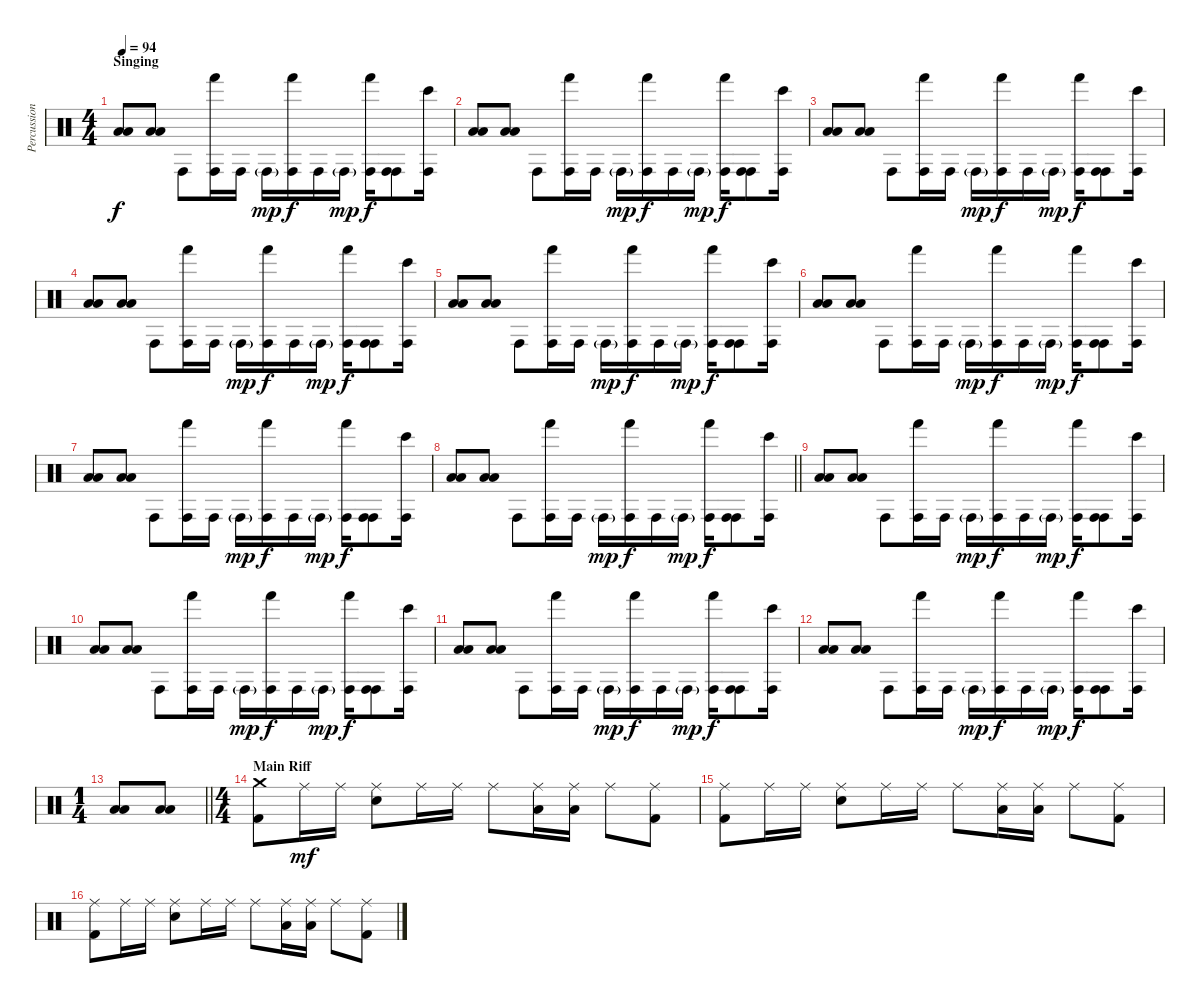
\track ("Percussions" "Percussion") {instrument percussion}
\staff {score}
\articulation defaults
\ts (4 4)
\section ("" "Singing")
\tempo 94
\clef neutral
\ks c
("Low Floor Tom (hit)" "Low Floor Tom (hit)").8{dy f} ("Low Floor Tom (hit)" "Low Floor Tom (hit)").8 "Conga high (hit)".8 ("Hand (hit)" "Conga high (hit)").16 "Conga high (hit)".16 "Conga high (hit)"{g}.16{dy mp} ("Hand (hit)" "Conga high (hit)").16{dy f} "Conga high (hit)".16 "Conga high (hit)"{g}.16{dy mp} ("Hand (hit)" "Conga high (hit)").16{dy f} ("Conga high (hit)" "Conga high (hit)").8 ("Bongo High (hit)" "Conga high (hit)").16 |
("Low Floor Tom (hit)" "Low Floor Tom (hit)").8 ("Low Floor Tom (hit)" "Low Floor Tom (hit)").8 "Conga high (hit)".8 ("Hand (hit)" "Conga high (hit)").16 "Conga high (hit)".16 "Conga high (hit)"{g}.16{dy mp} ("Hand (hit)" "Conga high (hit)").16{dy f} "Conga high (hit)".16 "Conga high (hit)"{g}.16{dy mp} ("Hand (hit)" "Conga high (hit)").16{dy f} ("Conga high (hit)" "Conga high (hit)").8 ("Bongo High (hit)" "Conga high (hit)").16 |
("Low Floor Tom (hit)" "Low Floor Tom (hit)").8 ("Low Floor Tom (hit)" "Low Floor Tom (hit)").8 "Conga high (hit)".8 ("Hand (hit)" "Conga high (hit)").16 "Conga high (hit)".16 "Conga high (hit)"{g}.16{dy mp} ("Hand (hit)" "Conga high (hit)").16{dy f} "Conga high (hit)".16 "Conga high (hit)"{g}.16{dy mp} ("Hand (hit)" "Conga high (hit)").16{dy f} ("Conga high (hit)" "Conga high (hit)").8 ("Bongo High (hit)" "Conga high (hit)").16 |
("Low Floor Tom (hit)" "Low Floor Tom (hit)").8 ("Low Floor Tom (hit)" "Low Floor Tom (hit)").8 "Conga high (hit)".8 ("Hand (hit)" "Conga high (hit)").16 "Conga high (hit)".16 "Conga high (hit)"{g}.16{dy mp} ("Hand (hit)" "Conga high (hit)").16{dy f} "Conga high (hit)".16 "Conga high (hit)"{g}.16{dy mp} ("Hand (hit)" "Conga high (hit)").16{dy f} ("Conga high (hit)" "Conga high (hit)").8 ("Bongo High (hit)" "Conga high (hit)").16 |
("Low Floor Tom (hit)" "Low Floor Tom (hit)").8 ("Low Floor Tom (hit)" "Low Floor Tom (hit)").8 "Conga high (hit)".8 ("Hand (hit)" "Conga high (hit)").16 "Conga high (hit)".16 "Conga high (hit)"{g}.16{dy mp} ("Hand (hit)" "Conga high (hit)").16{dy f} "Conga high (hit)".16 "Conga high (hit)"{g}.16{dy mp} ("Hand (hit)" "Conga high (hit)").16{dy f} ("Conga high (hit)" "Conga high (hit)").8 ("Bongo High (hit)" "Conga high (hit)").16 |
("Low Floor Tom (hit)" "Low Floor Tom (hit)").8 ("Low Floor Tom (hit)" "Low Floor Tom (hit)").8 "Conga high (hit)".8 ("Hand (hit)" "Conga high (hit)").16 "Conga high (hit)".16 "Conga high (hit)"{g}.16{dy mp} ("Hand (hit)" "Conga high (hit)").16{dy f} "Conga high (hit)".16 "Conga high (hit)"{g}.16{dy mp} ("Hand (hit)" "Conga high (hit)").16{dy f} ("Conga high (hit)" "Conga high (hit)").8 ("Bongo High (hit)" "Conga high (hit)").16 |
("Low Floor Tom (hit)" "Low Floor Tom (hit)").8 ("Low Floor Tom (hit)" "Low Floor Tom (hit)").8 "Conga high (hit)".8 ("Hand (hit)" "Conga high (hit)").16 "Conga high (hit)".16 "Conga high (hit)"{g}.16{dy mp} ("Hand (hit)" "Conga high (hit)").16{dy f} "Conga high (hit)".16 "Conga high (hit)"{g}.16{dy mp} ("Hand (hit)" "Conga high (hit)").16{dy f} ("Conga high (hit)" "Conga high (hit)").8 ("Bongo High (hit)" "Conga high (hit)").16 |
\barLineRight lightlight
("Low Floor Tom (hit)" "Low Floor Tom (hit)").8 ("Low Floor Tom (hit)" "Low Floor Tom (hit)").8 "Conga high (hit)".8 ("Hand (hit)" "Conga high (hit)").16 "Conga high (hit)".16 "Conga high (hit)"{g}.16{dy mp} ("Hand (hit)" "Conga high (hit)").16{dy f} "Conga high (hit)".16 "Conga high (hit)"{g}.16{dy mp} ("Hand (hit)" "Conga high (hit)").16{dy f} ("Conga high (hit)" "Conga high (hit)").8 ("Bongo High (hit)" "Conga high (hit)").16 |
\section ("" "")
("Low Floor Tom (hit)" "Low Floor Tom (hit)").8 ("Low Floor Tom (hit)" "Low Floor Tom (hit)").8 "Conga high (hit)".8 ("Hand (hit)" "Conga high (hit)").16 "Conga high (hit)".16 "Conga high (hit)"{g}.16{dy mp} ("Hand (hit)" "Conga high (hit)").16{dy f} "Conga high (hit)".16 "Conga high (hit)"{g}.16{dy mp} ("Hand (hit)" "Conga high (hit)").16{dy f} ("Conga high (hit)" "Conga high (hit)").8 ("Bongo High (hit)" "Conga high (hit)").16 |
("Low Floor Tom (hit)" "Low Floor Tom (hit)").8 ("Low Floor Tom (hit)" "Low Floor Tom (hit)").8 "Conga high (hit)".8 ("Hand (hit)" "Conga high (hit)").16 "Conga high (hit)".16 "Conga high (hit)"{g}.16{dy mp} ("Hand (hit)" "Conga high (hit)").16{dy f} "Conga high (hit)".16 "Conga high (hit)"{g}.16{dy mp} ("Hand (hit)" "Conga high (hit)").16{dy f} ("Conga high (hit)" "Conga high (hit)").8 ("Bongo High (hit)" "Conga high (hit)").16 |
("Low Floor Tom (hit)" "Low Floor Tom (hit)").8 ("Low Floor Tom (hit)" "Low Floor Tom (hit)").8 "Conga high (hit)".8 ("Hand (hit)" "Conga high (hit)").16 "Conga high (hit)".16 "Conga high (hit)"{g}.16{dy mp} ("Hand (hit)" "Conga high (hit)").16{dy f} "Conga high (hit)".16 "Conga high (hit)"{g}.16{dy mp} ("Hand (hit)" "Conga high (hit)").16{dy f} ("Conga high (hit)" "Conga high (hit)").8 ("Bongo High (hit)" "Conga high (hit)").16 |
("Low Floor Tom (hit)" "Low Floor Tom (hit)").8 ("Low Floor Tom (hit)" "Low Floor Tom (hit)").8 "Conga high (hit)".8 ("Hand (hit)" "Conga high (hit)").16 "Conga high (hit)".16 "Conga high (hit)"{g}.16{dy mp} ("Hand (hit)" "Conga high (hit)").16{dy f} "Conga high (hit)".16 "Conga high (hit)"{g}.16{dy mp} ("Hand (hit)" "Conga high (hit)").16{dy f} ("Conga high (hit)" "Conga high (hit)").8 ("Bongo High (hit)" "Conga high (hit)").16 |
\ts (1 4)
\barLineRight lightlight
("Low Floor Tom (hit)" "Low Floor Tom (hit)").8 ("Low Floor Tom (hit)" "Low Floor Tom (hit)").8 |
\ts (4 4)
\section ("" "Main Riff")
("Crash medium (hit)" "Kick (hit) 2").8 "Ride (middle)".16{dy mf} "Ride (middle)".16 ("Electric Snare (hit)" "Ride (middle)").8 "Ride (middle)".16 "Ride (middle)".16 "Ride (middle)".8 ("Low Tom (hit)" "Ride (middle)").16 ("Low Floor Tom (hit)" "Ride (middle)").16 "Ride (middle)".8 ("Kick (hit) 2" "Ride (middle)").8 |
("Kick (hit) 2" "Ride (middle)").8 "Ride (middle)".16 "Ride (middle)".16 ("Electric Snare (hit)" "Ride (middle)").8 "Ride (middle)".16 "Ride (middle)".16 "Ride (middle)".8 ("Low Tom (hit)" "Ride (middle)").16 ("Low Floor Tom (hit)" "Ride (middle)").16 "Ride (middle)".8 ("Kick (hit) 2" "Ride (middle)").8 |
("Kick (hit) 2" "Ride (middle)").8 "Ride (middle)".16 "Ride (middle)".16 ("Electric Snare (hit)" "Ride (middle)").8 "Ride (middle)".16 "Ride (middle)".16 "Ride (middle)".8 ("Low Tom (hit)" "Ride (middle)").16 ("Low Floor Tom (hit)" "Ride (middle)").16 "Ride (middle)".8 ("Kick (hit) 2" "Ride (middle)").8
